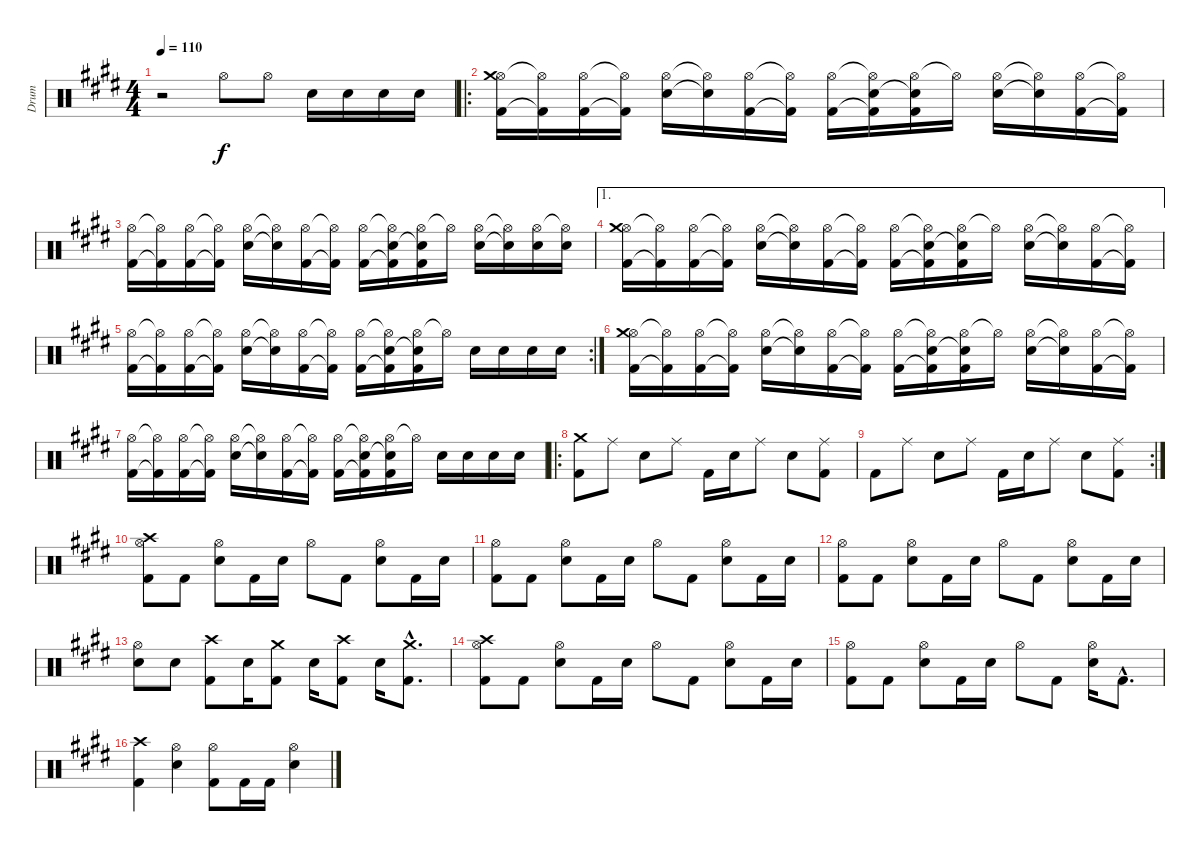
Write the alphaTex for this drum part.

\track ("Drum" "Drum") {instrument percussion}
\staff {score}
\articulation defaults
\ts (4 4)
\tempo 110
\clef neutral
\ks c#minor
r.2{dy f} "Hi-Hat (open)".8 "Hi-Hat (open)".8 "Snare (hit) 2".16 "Snare (hit) 2".16 "Snare (hit) 2".16 "Snare (hit) 2".16 |
\ro
("Hi-Hat (open)" "Kick (hit) 2" "Crash medium (hit)").16 ("Hi-Hat (open)"{t} "Kick (hit) 2"{t}).16 ("Hi-Hat (open)" "Kick (hit) 2").16 ("Hi-Hat (open)"{t} "Kick (hit) 2"{t}).16 ("Hi-Hat (open)" "Snare (hit) 2").16 ("Hi-Hat (open)"{t} "Snare (hit) 2"{t}).16 ("Hi-Hat (open)" "Kick (hit) 2").16 ("Hi-Hat (open)"{t} "Kick (hit) 2"{t}).16 ("Hi-Hat (open)" "Kick (hit) 2").16 ("Hi-Hat (open)"{t} "Kick (hit) 2"{t} "Snare (hit) 2").16 ("Hi-Hat (open)" "Kick (hit) 2" "Snare (hit) 2"{t}).16 "Hi-Hat (open)"{t}.16 ("Hi-Hat (open)" "Snare (hit) 2").16 ("Hi-Hat (open)"{t} "Snare (hit) 2"{t}).16 ("Hi-Hat (open)" "Kick (hit) 2").16 ("Hi-Hat (open)"{t} "Kick (hit) 2"{t}).16 |
("Hi-Hat (open)" "Kick (hit) 2").16 ("Hi-Hat (open)"{t} "Kick (hit) 2"{t}).16 ("Hi-Hat (open)" "Kick (hit) 2").16 ("Hi-Hat (open)"{t} "Kick (hit) 2"{t}).16 ("Hi-Hat (open)" "Snare (hit) 2").16 ("Hi-Hat (open)"{t} "Snare (hit) 2"{t}).16 ("Hi-Hat (open)" "Kick (hit) 2").16 ("Hi-Hat (open)"{t} "Kick (hit) 2"{t}).16 ("Hi-Hat (open)" "Kick (hit) 2").16 ("Hi-Hat (open)"{t} "Kick (hit) 2"{t} "Snare (hit) 2").16 ("Hi-Hat (open)" "Kick (hit) 2" "Snare (hit) 2"{t}).16 "Hi-Hat (open)"{t}.16 ("Hi-Hat (open)" "Snare (hit) 2").16 ("Hi-Hat (open)"{t} "Snare (hit) 2"{t}).16 ("Hi-Hat (open)" "Snare (hit) 2").16 ("Hi-Hat (open)"{t} "Snare (hit) 2").16 |
\ae 1
("Hi-Hat (open)" "Kick (hit) 2" "Crash medium (hit)").16 ("Hi-Hat (open)"{t} "Kick (hit) 2"{t}).16 ("Hi-Hat (open)" "Kick (hit) 2").16 ("Hi-Hat (open)"{t} "Kick (hit) 2"{t}).16 ("Hi-Hat (open)" "Snare (hit) 2").16 ("Hi-Hat (open)"{t} "Snare (hit) 2"{t}).16 ("Hi-Hat (open)" "Kick (hit) 2").16 ("Hi-Hat (open)"{t} "Kick (hit) 2"{t}).16 ("Hi-Hat (open)" "Kick (hit) 2").16 ("Hi-Hat (open)"{t} "Kick (hit) 2"{t} "Snare (hit) 2").16 ("Hi-Hat (open)" "Kick (hit) 2" "Snare (hit) 2"{t}).16 "Hi-Hat (open)"{t}.16 ("Hi-Hat (open)" "Snare (hit) 2").16 ("Hi-Hat (open)"{t} "Snare (hit) 2"{t}).16 ("Hi-Hat (open)" "Kick (hit) 2").16 ("Hi-Hat (open)"{t} "Kick (hit) 2"{t}).16 |
\rc 2
("Hi-Hat (open)" "Kick (hit) 2").16 ("Hi-Hat (open)"{t} "Kick (hit) 2"{t}).16 ("Hi-Hat (open)" "Kick (hit) 2").16 ("Hi-Hat (open)"{t} "Kick (hit) 2"{t}).16 ("Hi-Hat (open)" "Snare (hit) 2").16 ("Hi-Hat (open)"{t} "Snare (hit) 2"{t}).16 ("Hi-Hat (open)" "Kick (hit) 2").16 ("Hi-Hat (open)"{t} "Kick (hit) 2"{t}).16 ("Hi-Hat (open)" "Kick (hit) 2").16 ("Hi-Hat (open)"{t} "Kick (hit) 2"{t} "Snare (hit) 2").16 ("Hi-Hat (open)" "Kick (hit) 2" "Snare (hit) 2"{t}).16 "Hi-Hat (open)"{t}.16 "Snare (hit) 2".16 "Snare (hit) 2".16 "Snare (hit) 2".16 "Snare (hit) 2".16 |
("Hi-Hat (open)" "Kick (hit) 2" "Crash medium (hit)").16 ("Hi-Hat (open)"{t} "Kick (hit) 2"{t}).16 ("Hi-Hat (open)" "Kick (hit) 2").16 ("Hi-Hat (open)"{t} "Kick (hit) 2"{t}).16 ("Hi-Hat (open)" "Snare (hit) 2").16 ("Hi-Hat (open)"{t} "Snare (hit) 2"{t}).16 ("Hi-Hat (open)" "Kick (hit) 2").16 ("Hi-Hat (open)"{t} "Kick (hit) 2"{t}).16 ("Hi-Hat (open)" "Kick (hit) 2").16 ("Hi-Hat (open)"{t} "Kick (hit) 2"{t} "Snare (hit) 2").16 ("Hi-Hat (open)" "Kick (hit) 2" "Snare (hit) 2"{t}).16 "Hi-Hat (open)"{t}.16 ("Hi-Hat (open)" "Snare (hit) 2").16 ("Hi-Hat (open)"{t} "Snare (hit) 2"{t}).16 ("Hi-Hat (open)" "Kick (hit) 2").16 ("Hi-Hat (open)"{t} "Kick (hit) 2"{t}).16 |
("Hi-Hat (open)" "Kick (hit) 2").16 ("Hi-Hat (open)"{t} "Kick (hit) 2"{t}).16 ("Hi-Hat (open)" "Kick (hit) 2").16 ("Hi-Hat (open)"{t} "Kick (hit) 2"{t}).16 ("Hi-Hat (open)" "Snare (hit) 2").16 ("Hi-Hat (open)"{t} "Snare (hit) 2"{t}).16 ("Hi-Hat (open)" "Kick (hit) 2").16 ("Hi-Hat (open)"{t} "Kick (hit) 2"{t}).16 ("Hi-Hat (open)" "Kick (hit) 2").16 ("Hi-Hat (open)"{t} "Kick (hit) 2"{t} "Snare (hit) 2").16 ("Hi-Hat (open)" "Kick (hit) 2" "Snare (hit) 2"{t}).16 "Hi-Hat (open)"{t}.16 "Snare (hit) 2".16 "Snare (hit) 2".16 "Snare (hit) 2".16 "Snare (hit) 2".16 |
\ro
("Kick (hit) 2" "Crash medium (hit)").8 "Ride (middle)".8 "Snare (hit) 2".8 "Ride (middle)".8 "Kick (hit) 2".16 "Snare (hit) 2".16 "Ride (middle)".8 "Snare (hit) 2".8 ("Ride (middle)" "Kick (hit) 2").8 |
\rc 2 "Kick (hit) 2".8 "Ride (middle)".8 "Snare (hit) 2".8 "Ride (middle)".8 "Kick (hit) 2".16 "Snare (hit) 2".16 "Ride (middle)".8 "Snare (hit) 2".8
("Ride (middle)" "Kick (hit) 2").8 |
("Hi-Hat (open)" "Kick (hit) 2" "Crash high (hit)").8 "Kick (hit) 2".8 ("Hi-Hat (open)" "Snare (hit) 2").8 "Kick (hit) 2".16 "Snare (hit) 2".16 "Hi-Hat (open)".8 "Kick (hit) 2".8 ("Hi-Hat (open)" "Snare (hit) 2").8 "Kick (hit) 2".16 "Snare (hit) 2".16 |
("Hi-Hat (open)" "Kick (hit) 2").8 "Kick (hit) 2".8 ("Hi-Hat (open)" "Snare (hit) 2").8 "Kick (hit) 2".16 "Snare (hit) 2".16 "Hi-Hat (open)".8 "Kick (hit) 2".8 ("Hi-Hat (open)" "Snare (hit) 2").8 "Kick (hit) 2".16 "Snare (hit) 2".16 |
("Hi-Hat (open)" "Kick (hit) 2").8 "Kick (hit) 2".8 ("Hi-Hat (open)" "Snare (hit) 2").8 "Kick (hit) 2".16 "Snare (hit) 2".16 "Hi-Hat (open)".8 "Kick (hit) 2".8 ("Hi-Hat (open)" "Snare (hit) 2").8 "Kick (hit) 2".16 "Snare (hit) 2".16 |
("Hi-Hat (open)" "Snare (hit) 2").8 "Snare (hit) 2".8 ("Crash high (hit)" "Kick (hit) 2").8 "Snare (hit) 2".16 ("Crash medium (hit)" "Kick (hit) 2").8 "Snare (hit) 2".16 ("Crash high (hit)" "Kick (hit) 2").8 "Snare (hit) 2".16 ("Crash medium (hit)"{hac} "Kick (hit) 2"{hac}).8{d} |
("Hi-Hat (open)" "Kick (hit) 2" "Crash high (hit)").8 "Kick (hit) 2".8 ("Hi-Hat (open)" "Snare (hit) 2").8 "Kick (hit) 2".16 "Snare (hit) 2".16 "Hi-Hat (open)".8 "Kick (hit) 2".8 ("Hi-Hat (open)" "Snare (hit) 2").8 "Kick (hit) 2".16 "Snare (hit) 2".16 |
("Hi-Hat (open)" "Kick (hit) 2").8 "Kick (hit) 2".8 ("Hi-Hat (open)" "Snare (hit) 2").8 "Kick (hit) 2".16 "Snare (hit) 2".16 "Hi-Hat (open)".8 "Kick (hit) 2".8 ("Hi-Hat (open)" "Snare (hit) 2").16 "Kick (hit) 2"{hac}.8{d} |
("Crash high (hit)" "Kick (hit) 2").4 ("Hi-Hat (open)" "Snare (hit) 2").4 ("Hi-Hat (open)" "Kick (hit) 2").8 "Kick (hit) 2".16 "Kick (hit) 2".16 ("Hi-Hat (open)" "Snare (hit) 2").4
